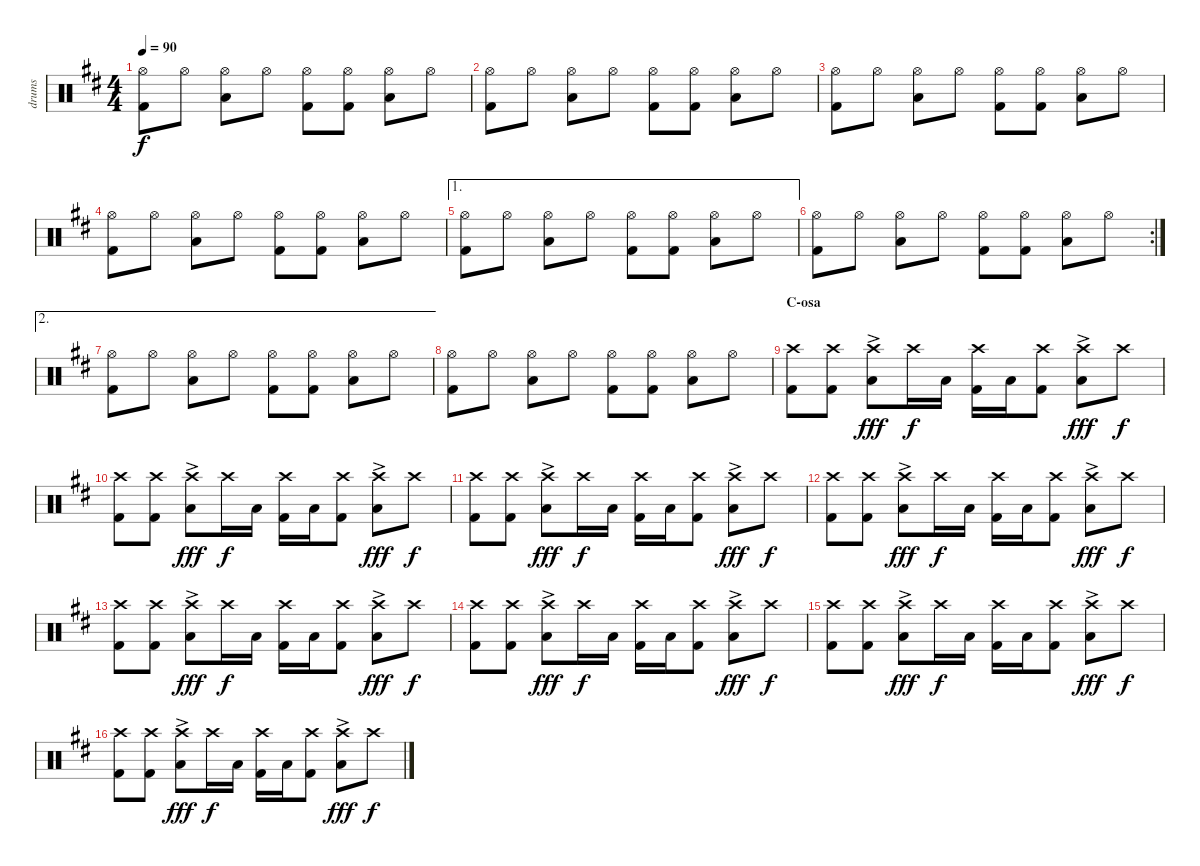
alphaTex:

\track ("drums" "drums") {instrument percussion}
\staff {score}
\articulation defaults
\ts (4 4)
\tempo 90
\clef neutral
\ks d
("Hi-Hat (open)" "Kick (hit) 2").8{dy f} "Hi-Hat (open)".8 ("Hi-Hat (open)" "Low Tom (hit)").8 "Hi-Hat (open)".8 ("Hi-Hat (open)" "Kick (hit) 2").8 ("Hi-Hat (open)" "Kick (hit) 2").8 ("Hi-Hat (open)" "Low Tom (hit)").8 "Hi-Hat (open)".8 |
("Hi-Hat (open)" "Kick (hit) 2").8 "Hi-Hat (open)".8 ("Hi-Hat (open)" "Low Tom (hit)").8 "Hi-Hat (open)".8 ("Hi-Hat (open)" "Kick (hit) 2").8 ("Hi-Hat (open)" "Kick (hit) 2").8 ("Hi-Hat (open)" "Low Tom (hit)").8 "Hi-Hat (open)".8 |
("Hi-Hat (open)" "Kick (hit) 2").8 "Hi-Hat (open)".8 ("Hi-Hat (open)" "Low Tom (hit)").8 "Hi-Hat (open)".8 ("Hi-Hat (open)" "Kick (hit) 2").8 ("Hi-Hat (open)" "Kick (hit) 2").8 ("Hi-Hat (open)" "Low Tom (hit)").8 "Hi-Hat (open)".8 |
("Hi-Hat (open)" "Kick (hit) 2").8 "Hi-Hat (open)".8 ("Hi-Hat (open)" "Low Tom (hit)").8 "Hi-Hat (open)".8 ("Hi-Hat (open)" "Kick (hit) 2").8 ("Hi-Hat (open)" "Kick (hit) 2").8 ("Hi-Hat (open)" "Low Tom (hit)").8 "Hi-Hat (open)".8 |
\ae 1
("Hi-Hat (open)" "Kick (hit) 2").8 "Hi-Hat (open)".8 ("Hi-Hat (open)" "Low Tom (hit)").8 "Hi-Hat (open)".8 ("Hi-Hat (open)" "Kick (hit) 2").8 ("Hi-Hat (open)" "Kick (hit) 2").8 ("Hi-Hat (open)" "Low Tom (hit)").8 "Hi-Hat (open)".8 |
\rc 2
("Hi-Hat (open)" "Kick (hit) 2").8 "Hi-Hat (open)".8 ("Hi-Hat (open)" "Low Tom (hit)").8 "Hi-Hat (open)".8 ("Hi-Hat (open)" "Kick (hit) 2").8 ("Hi-Hat (open)" "Kick (hit) 2").8 ("Hi-Hat (open)" "Low Tom (hit)").8 "Hi-Hat (open)".8 |
\ae 2
("Hi-Hat (open)" "Kick (hit) 2").8 "Hi-Hat (open)".8 ("Hi-Hat (open)" "Low Tom (hit)").8 "Hi-Hat (open)".8 ("Hi-Hat (open)" "Kick (hit) 2").8 ("Hi-Hat (open)" "Kick (hit) 2").8 ("Hi-Hat (open)" "Low Tom (hit)").8 "Hi-Hat (open)".8 |
("Hi-Hat (open)" "Kick (hit) 2").8 "Hi-Hat (open)".8 ("Hi-Hat (open)" "Low Tom (hit)").8 "Hi-Hat (open)".8 ("Hi-Hat (open)" "Kick (hit) 2").8 ("Hi-Hat (open)" "Kick (hit) 2").8 ("Hi-Hat (open)" "Low Tom (hit)").8 "Hi-Hat (open)".8 |
\section ("" "C-osa")
("Kick (hit) 2" "Crash high (hit)").8 ("Kick (hit) 2" "Crash high (hit)").8 ("Low Tom (hit)"{ac} "Crash high (hit)"{ac}).8{dy fff} "Crash high (hit)".16{dy f} "Low Tom (hit)".16 ("Crash high (hit)" "Kick (hit) 2").16 "Low Tom (hit)".16 ("Kick (hit) 2" "Crash high (hit)").8 ("Low Tom (hit)"{ac} "Crash high (hit)"{ac}).8{dy fff} "Crash high (hit)".8{dy f} |
("Kick (hit) 2" "Crash high (hit)").8 ("Kick (hit) 2" "Crash high (hit)").8 ("Low Tom (hit)"{ac} "Crash high (hit)"{ac}).8{dy fff} "Crash high (hit)".16{dy f} "Low Tom (hit)".16 ("Crash high (hit)" "Kick (hit) 2").16 "Low Tom (hit)".16 ("Kick (hit) 2" "Crash high (hit)").8 ("Low Tom (hit)"{ac} "Crash high (hit)"{ac}).8{dy fff} "Crash high (hit)".8{dy f} |
("Kick (hit) 2" "Crash high (hit)").8 ("Kick (hit) 2" "Crash high (hit)").8 ("Low Tom (hit)"{ac} "Crash high (hit)"{ac}).8{dy fff} "Crash high (hit)".16{dy f} "Low Tom (hit)".16 ("Crash high (hit)" "Kick (hit) 2").16 "Low Tom (hit)".16 ("Kick (hit) 2" "Crash high (hit)").8 ("Low Tom (hit)"{ac} "Crash high (hit)"{ac}).8{dy fff} "Crash high (hit)".8{dy f} |
("Kick (hit) 2" "Crash high (hit)").8 ("Kick (hit) 2" "Crash high (hit)").8 ("Low Tom (hit)"{ac} "Crash high (hit)"{ac}).8{dy fff} "Crash high (hit)".16{dy f} "Low Tom (hit)".16 ("Crash high (hit)" "Kick (hit) 2").16 "Low Tom (hit)".16 ("Kick (hit) 2" "Crash high (hit)").8 ("Low Tom (hit)"{ac} "Crash high (hit)"{ac}).8{dy fff} "Crash high (hit)".8{dy f} |
("Kick (hit) 2" "Crash high (hit)").8 ("Kick (hit) 2" "Crash high (hit)").8 ("Low Tom (hit)"{ac} "Crash high (hit)"{ac}).8{dy fff} "Crash high (hit)".16{dy f} "Low Tom (hit)".16 ("Crash high (hit)" "Kick (hit) 2").16 "Low Tom (hit)".16 ("Kick (hit) 2" "Crash high (hit)").8 ("Low Tom (hit)"{ac} "Crash high (hit)"{ac}).8{dy fff} "Crash high (hit)".8{dy f} |
("Kick (hit) 2" "Crash high (hit)").8 ("Kick (hit) 2" "Crash high (hit)").8 ("Low Tom (hit)"{ac} "Crash high (hit)"{ac}).8{dy fff} "Crash high (hit)".16{dy f} "Low Tom (hit)".16 ("Crash high (hit)" "Kick (hit) 2").16 "Low Tom (hit)".16 ("Kick (hit) 2" "Crash high (hit)").8 ("Low Tom (hit)"{ac} "Crash high (hit)"{ac}).8{dy fff} "Crash high (hit)".8{dy f} |
("Kick (hit) 2" "Crash high (hit)").8 ("Kick (hit) 2" "Crash high (hit)").8 ("Low Tom (hit)"{ac} "Crash high (hit)"{ac}).8{dy fff} "Crash high (hit)".16{dy f} "Low Tom (hit)".16 ("Crash high (hit)" "Kick (hit) 2").16 "Low Tom (hit)".16 ("Kick (hit) 2" "Crash high (hit)").8 ("Low Tom (hit)"{ac} "Crash high (hit)"{ac}).8{dy fff} "Crash high (hit)".8{dy f} |
("Kick (hit) 2" "Crash high (hit)").8 ("Kick (hit) 2" "Crash high (hit)").8 ("Low Tom (hit)"{ac} "Crash high (hit)"{ac}).8{dy fff} "Crash high (hit)".16{dy f} "Low Tom (hit)".16 ("Crash high (hit)" "Kick (hit) 2").16 "Low Tom (hit)".16 ("Kick (hit) 2" "Crash high (hit)").8 ("Low Tom (hit)"{ac} "Crash high (hit)"{ac}).8{dy fff} "Crash high (hit)".8{dy f}
